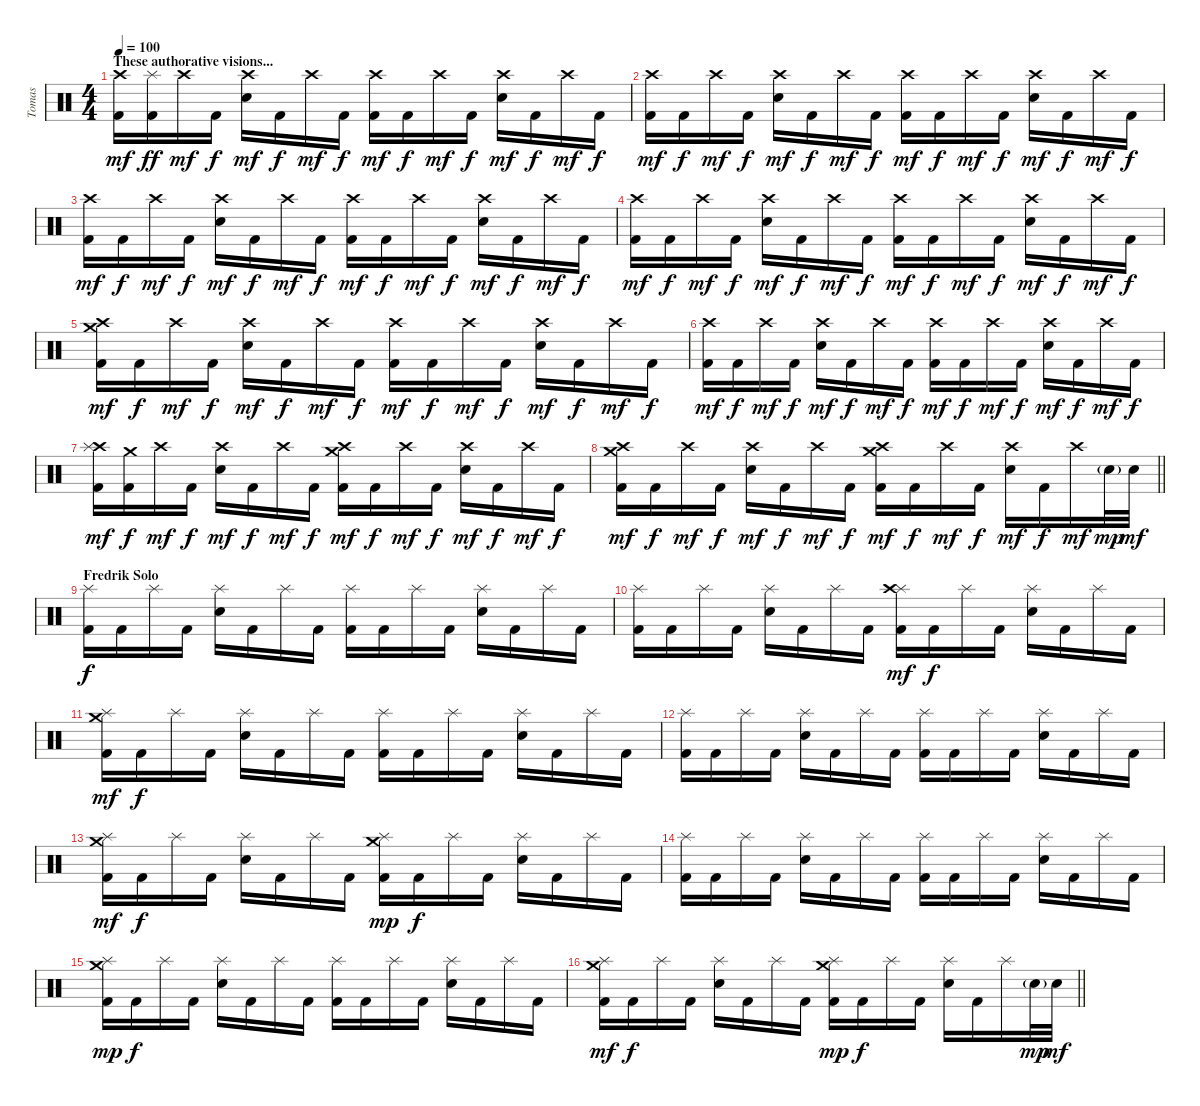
\track ("Tomas" "Tomas") {instrument percussion}
\staff {score}
\articulation defaults
\ts (4 4)
\section ("" "These authorative visions...")
\tempo 100
\clef neutral
\ks c
("Crash high (hit)" "Kick (hit) 2").16{dy mf} ("Splash (hit)" "Kick (hit) 2").16{dy ff} "Crash high (hit)".16{dy mf} "Kick (hit) 2".16{dy f} ("Crash high (hit)" "Electric Snare (hit)").16{dy mf} "Kick (hit) 2".16{dy f} "Crash high (hit)".16{dy mf} "Kick (hit) 2".16{dy f} ("Crash high (hit)" "Kick (hit) 2").16{dy mf} "Kick (hit) 2".16{dy f} "Crash high (hit)".16{dy mf} "Kick (hit) 2".16{dy f} ("Crash high (hit)" "Electric Snare (hit)").16{dy mf} "Kick (hit) 2".16{dy f} "Crash high (hit)".16{dy mf} "Kick (hit) 2".16{dy f} |
("Crash high (hit)" "Kick (hit) 2").16{dy mf} "Kick (hit) 2".16{dy f} "Crash high (hit)".16{dy mf} "Kick (hit) 2".16{dy f} ("Crash high (hit)" "Electric Snare (hit)").16{dy mf} "Kick (hit) 2".16{dy f} "Crash high (hit)".16{dy mf} "Kick (hit) 2".16{dy f} ("Crash high (hit)" "Kick (hit) 2").16{dy mf} "Kick (hit) 2".16{dy f} "Crash high (hit)".16{dy mf} "Kick (hit) 2".16{dy f} ("Crash high (hit)" "Electric Snare (hit)").16{dy mf} "Kick (hit) 2".16{dy f} "Crash high (hit)".16{dy mf} "Kick (hit) 2".16{dy f} |
("Crash high (hit)" "Kick (hit) 2").16{dy mf} "Kick (hit) 2".16{dy f} "Crash high (hit)".16{dy mf} "Kick (hit) 2".16{dy f} ("Crash high (hit)" "Electric Snare (hit)").16{dy mf} "Kick (hit) 2".16{dy f} "Crash high (hit)".16{dy mf} "Kick (hit) 2".16{dy f} ("Crash high (hit)" "Kick (hit) 2").16{dy mf} "Kick (hit) 2".16{dy f} "Crash high (hit)".16{dy mf} "Kick (hit) 2".16{dy f} ("Crash high (hit)" "Electric Snare (hit)").16{dy mf} "Kick (hit) 2".16{dy f} "Crash high (hit)".16{dy mf} "Kick (hit) 2".16{dy f} |
("Crash high (hit)" "Kick (hit) 2").16{dy mf} "Kick (hit) 2".16{dy f} "Crash high (hit)".16{dy mf} "Kick (hit) 2".16{dy f} ("Crash high (hit)" "Electric Snare (hit)").16{dy mf} "Kick (hit) 2".16{dy f} "Crash high (hit)".16{dy mf} "Kick (hit) 2".16{dy f} ("Crash high (hit)" "Kick (hit) 2").16{dy mf} "Kick (hit) 2".16{dy f} "Crash high (hit)".16{dy mf} "Kick (hit) 2".16{dy f} ("Crash high (hit)" "Electric Snare (hit)").16{dy mf} "Kick (hit) 2".16{dy f} "Crash high (hit)".16{dy mf} "Kick (hit) 2".16{dy f} |
("Crash high (hit)" "Crash medium (hit)" "Kick (hit) 2").16{dy mf} "Kick (hit) 2".16{dy f} "Crash high (hit)".16{dy mf} "Kick (hit) 2".16{dy f} ("Crash high (hit)" "Electric Snare (hit)").16{dy mf} "Kick (hit) 2".16{dy f} "Crash high (hit)".16{dy mf} "Kick (hit) 2".16{dy f} ("Crash high (hit)" "Kick (hit) 2").16{dy mf} "Kick (hit) 2".16{dy f} "Crash high (hit)".16{dy mf} "Kick (hit) 2".16{dy f} ("Crash high (hit)" "Electric Snare (hit)").16{dy mf} "Kick (hit) 2".16{dy f} "Crash high (hit)".16{dy mf} "Kick (hit) 2".16{dy f} |
("Crash high (hit)" "Kick (hit) 2").16{dy mf} "Kick (hit) 2".16{dy f} "Crash high (hit)".16{dy mf} "Kick (hit) 2".16{dy f} ("Crash high (hit)" "Electric Snare (hit)").16{dy mf} "Kick (hit) 2".16{dy f} "Crash high (hit)".16{dy mf} "Kick (hit) 2".16{dy f} ("Crash high (hit)" "Kick (hit) 2").16{dy mf} "Kick (hit) 2".16{dy f} "Crash high (hit)".16{dy mf} "Kick (hit) 2".16{dy f} ("Crash high (hit)" "Electric Snare (hit)").16{dy mf} "Kick (hit) 2".16{dy f} "Crash high (hit)".16{dy mf} "Kick (hit) 2".16{dy f} |
("Crash high (hit)" "Splash (hit)" "Kick (hit) 2").16{dy mf} ("Crash medium (hit)" "Kick (hit) 2").16{dy f} "Crash high (hit)".16{dy mf} "Kick (hit) 2".16{dy f} ("Crash high (hit)" "Electric Snare (hit)").16{dy mf} "Kick (hit) 2".16{dy f} "Crash high (hit)".16{dy mf} "Kick (hit) 2".16{dy f} ("Crash high (hit)" "Crash medium (hit)" "Kick (hit) 2").16{dy mf} "Kick (hit) 2".16{dy f} "Crash high (hit)".16{dy mf} "Kick (hit) 2".16{dy f} ("Crash high (hit)" "Electric Snare (hit)").16{dy mf} "Kick (hit) 2".16{dy f} "Crash high (hit)".16{dy mf} "Kick (hit) 2".16{dy f} |
\barLineRight lightlight
("Crash high (hit)" "Crash medium (hit)" "Kick (hit) 2").16{dy mf} "Kick (hit) 2".16{dy f} "Crash high (hit)".16{dy mf} "Kick (hit) 2".16{dy f} ("Crash high (hit)" "Electric Snare (hit)").16{dy mf} "Kick (hit) 2".16{dy f} "Crash high (hit)".16{dy mf} "Kick (hit) 2".16{dy f} ("Crash high (hit)" "Crash medium (hit)" "Kick (hit) 2").16{dy mf} "Kick (hit) 2".16{dy f} "Crash high (hit)".16{dy mf} "Kick (hit) 2".16{dy f} ("Crash high (hit)" "Electric Snare (hit)").16{dy mf} "Kick (hit) 2".16{dy f} "Crash high (hit)".16{dy mf} "Electric Snare (hit)"{g}.32{dy mp} "Electric Snare (hit)".32{dy mf} |
\section ("" "Fredrik Solo")
("Splash (hit)" "Kick (hit) 2").16{dy f} "Kick (hit) 2".16 "Splash (hit)".16 "Kick (hit) 2".16 ("Splash (hit)" "Electric Snare (hit)").16 "Kick (hit) 2".16 "Splash (hit)".16 "Kick (hit) 2".16 ("Splash (hit)" "Kick (hit) 2").16 "Kick (hit) 2".16 "Splash (hit)".16 "Kick (hit) 2".16 ("Splash (hit)" "Electric Snare (hit)").16 "Kick (hit) 2".16 "Splash (hit)".16 "Kick (hit) 2".16 |
("Splash (hit)" "Kick (hit) 2").16 "Kick (hit) 2".16 "Splash (hit)".16 "Kick (hit) 2".16 ("Splash (hit)" "Electric Snare (hit)").16 "Kick (hit) 2".16 "Splash (hit)".16 "Kick (hit) 2".16 ("Splash (hit)" "Crash high (hit)" "Kick (hit) 2").16{dy mf} "Kick (hit) 2".16{dy f} "Splash (hit)".16 "Kick (hit) 2".16 ("Splash (hit)" "Electric Snare (hit)").16 "Kick (hit) 2".16 "Splash (hit)".16 "Kick (hit) 2".16 |
("Splash (hit)" "Crash medium (hit)" "Kick (hit) 2").16{dy mf} "Kick (hit) 2".16{dy f} "Splash (hit)".16 "Kick (hit) 2".16 ("Splash (hit)" "Electric Snare (hit)").16 "Kick (hit) 2".16 "Splash (hit)".16 "Kick (hit) 2".16 ("Splash (hit)" "Kick (hit) 2").16 "Kick (hit) 2".16 "Splash (hit)".16 "Kick (hit) 2".16 ("Splash (hit)" "Electric Snare (hit)").16 "Kick (hit) 2".16 "Splash (hit)".16 "Kick (hit) 2".16 |
("Splash (hit)" "Kick (hit) 2").16 "Kick (hit) 2".16 "Splash (hit)".16 "Kick (hit) 2".16 ("Splash (hit)" "Electric Snare (hit)").16 "Kick (hit) 2".16 "Splash (hit)".16 "Kick (hit) 2".16 ("Splash (hit)" "Kick (hit) 2").16 "Kick (hit) 2".16 "Splash (hit)".16 "Kick (hit) 2".16 ("Splash (hit)" "Electric Snare (hit)").16 "Kick (hit) 2".16 "Splash (hit)".16 "Kick (hit) 2".16 |
("Splash (hit)" "Crash medium (hit)" "Kick (hit) 2").16{dy mf} "Kick (hit) 2".16{dy f} "Splash (hit)".16 "Kick (hit) 2".16 ("Splash (hit)" "Electric Snare (hit)").16 "Kick (hit) 2".16 "Splash (hit)".16 "Kick (hit) 2".16 ("Splash (hit)" "Crash medium (hit)" "Kick (hit) 2").16{dy mp} "Kick (hit) 2".16{dy f} "Splash (hit)".16 "Kick (hit) 2".16 ("Splash (hit)" "Electric Snare (hit)").16 "Kick (hit) 2".16 "Splash (hit)".16 "Kick (hit) 2".16 |
("Splash (hit)" "Kick (hit) 2").16 "Kick (hit) 2".16 "Splash (hit)".16 "Kick (hit) 2".16 ("Splash (hit)" "Electric Snare (hit)").16 "Kick (hit) 2".16 "Splash (hit)".16 "Kick (hit) 2".16 ("Splash (hit)" "Kick (hit) 2").16 "Kick (hit) 2".16 "Splash (hit)".16 "Kick (hit) 2".16 ("Splash (hit)" "Electric Snare (hit)").16 "Kick (hit) 2".16 "Splash (hit)".16 "Kick (hit) 2".16 |
("Splash (hit)" "Crash medium (hit)" "Kick (hit) 2").16{dy mp} "Kick (hit) 2".16{dy f} "Splash (hit)".16 "Kick (hit) 2".16 ("Splash (hit)" "Electric Snare (hit)").16 "Kick (hit) 2".16 "Splash (hit)".16 "Kick (hit) 2".16 ("Splash (hit)" "Kick (hit) 2").16 "Kick (hit) 2".16 "Splash (hit)".16 "Kick (hit) 2".16 ("Splash (hit)" "Electric Snare (hit)").16 "Kick (hit) 2".16 "Splash (hit)".16 "Kick (hit) 2".16 |
\barLineRight lightlight
("Splash (hit)" "Crash medium (hit)" "Kick (hit) 2").16{dy mf} "Kick (hit) 2".16{dy f} "Splash (hit)".16 "Kick (hit) 2".16 ("Splash (hit)" "Electric Snare (hit)").16 "Kick (hit) 2".16 "Splash (hit)".16 "Kick (hit) 2".16 ("Splash (hit)" "Crash medium (hit)" "Kick (hit) 2").16{dy mp} "Kick (hit) 2".16{dy f} "Splash (hit)".16 "Kick (hit) 2".16 ("Splash (hit)" "Electric Snare (hit)").16 "Kick (hit) 2".16 "Splash (hit)".16 "Electric Snare (hit)"{g}.32{dy mp} "Electric Snare (hit)".32{dy mf}
